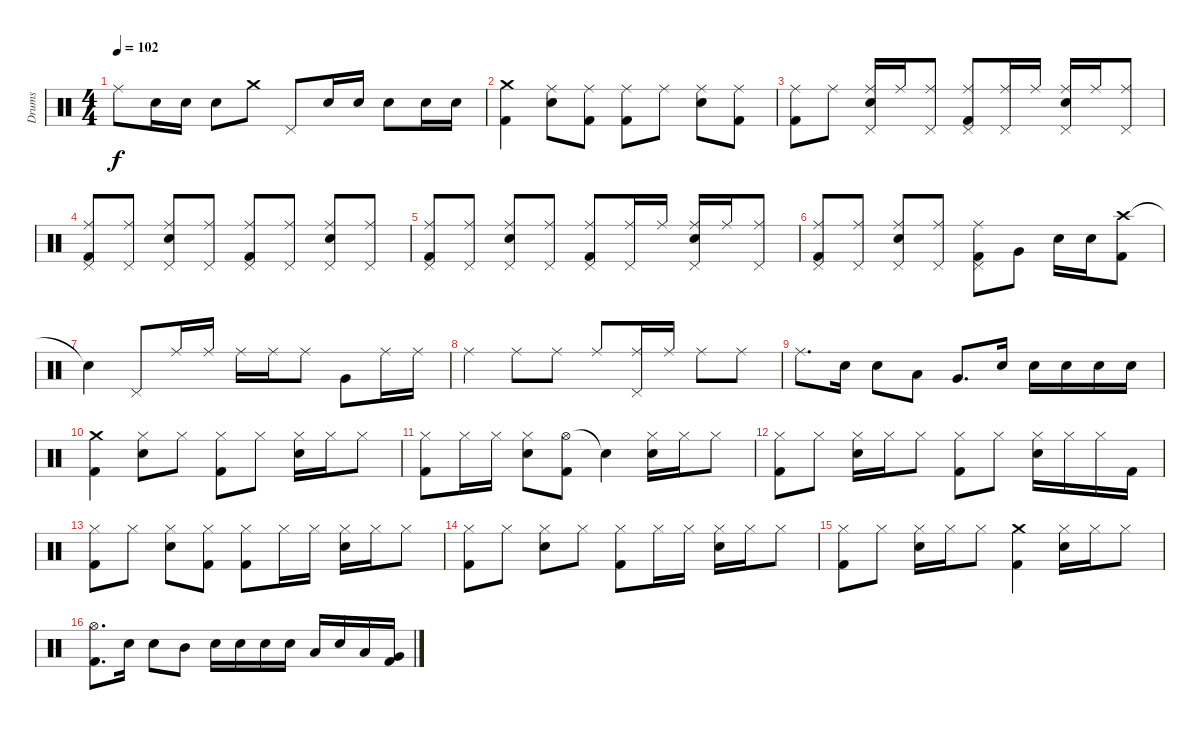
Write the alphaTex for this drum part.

\track ("Drums" "Drums") {instrument percussion}
\staff {score}
\articulation defaults
\ts (4 4)
\tempo 102
\clef neutral
\ks c "Ride (middle)".8{dy f} "Snare (hit) 2".16 "Snare (hit) 2".16 "Snare (hit) 2".8 "Crash medium (hit)".8 "Pedal Hi-Hat (hit)".8 "Snare (hit) 2".16 "Snare (hit) 2".16 "Snare (hit) 2".8 "Snare (hit) 2".16 "Snare (hit) 2".16
|
("Crash medium (hit)" "Kick (hit) 2").4 ("Ride (middle)" "Snare (hit) 2").8 ("Ride (middle)" "Kick (hit) 2").8 ("Ride (middle)" "Kick (hit) 2").8 "Ride (middle)".8 ("Ride (middle)" "Snare (hit) 2").8 ("Ride (middle)" "Kick (hit) 2").8 |
("Ride (middle)" "Kick (hit) 2").8 "Ride (middle)".8 ("Ride (middle)" "Pedal Hi-Hat (hit)" "Snare (hit) 2").16 "Ride (middle)".16 ("Ride (middle)" "Pedal Hi-Hat (hit)").8 ("Ride (middle)" "Pedal Hi-Hat (hit)" "Kick (hit) 2").8 ("Ride (middle)" "Pedal Hi-Hat (hit)").16 "Ride (middle)".16 ("Ride (middle)" "Pedal Hi-Hat (hit)" "Snare (hit) 2").16 "Ride (middle)".16 ("Ride (middle)" "Pedal Hi-Hat (hit)").8 |
("Ride (middle)" "Pedal Hi-Hat (hit)" "Kick (hit) 2").8 ("Ride (middle)" "Pedal Hi-Hat (hit)").8 ("Ride (middle)" "Pedal Hi-Hat (hit)" "Snare (hit) 2").8 ("Ride (middle)" "Pedal Hi-Hat (hit)").8 ("Ride (middle)" "Pedal Hi-Hat (hit)" "Kick (hit) 2").8 ("Ride (middle)" "Pedal Hi-Hat (hit)").8 ("Ride (middle)" "Pedal Hi-Hat (hit)" "Snare (hit) 2").8 ("Ride (middle)" "Pedal Hi-Hat (hit)").8 |
("Ride (middle)" "Pedal Hi-Hat (hit)" "Kick (hit) 2").8 ("Ride (middle)" "Pedal Hi-Hat (hit)").8 ("Ride (middle)" "Pedal Hi-Hat (hit)" "Snare (hit) 2").8 ("Ride (middle)" "Pedal Hi-Hat (hit)").8 ("Ride (middle)" "Pedal Hi-Hat (hit)" "Kick (hit) 2").8 ("Ride (middle)" "Pedal Hi-Hat (hit)").16 "Ride (middle)".16 ("Ride (middle)" "Pedal Hi-Hat (hit)" "Snare (hit) 2").16 "Ride (middle)".16 ("Ride (middle)" "Pedal Hi-Hat (hit)").8 |
("Ride (middle)" "Pedal Hi-Hat (hit)" "Kick (hit) 2").8 ("Ride (middle)" "Pedal Hi-Hat (hit)").8 ("Ride (middle)" "Pedal Hi-Hat (hit)" "Snare (hit) 2").8 ("Ride (middle)" "Pedal Hi-Hat (hit)").8 ("Ride (middle)" "Pedal Hi-Hat (hit)" "Kick (hit) 2").8 "Very Low Tom (hit)".8 "Snare (hit) 2".16 "Snare (hit) 2".16 ("Crash high (hit)" "Kick (hit) 2").8 |
"Snare (hit)"{t}.4 "Pedal Hi-Hat (hit)".8 "Ride (middle)".16 "Ride (middle)".16 "Ride (middle)".16 "Ride (middle)".16 "Ride (middle)".8 "Very Low Tom (hit)".8 "Ride (middle)".16 "Ride (middle)".16 |
"Ride (middle)".4 "Ride (middle)".8 "Ride (middle)".8 "Ride (middle)".8 ("Ride (middle)" "Pedal Hi-Hat (hit)").16 "Ride (middle)".16 "Ride (middle)".8 "Ride (middle)".8 |
"Ride (middle)".8{d} "Snare (hit) 2".16 "Snare (hit) 2".8 "Low Tom (hit)".8 "Very Low Tom (hit)".8{d} "Snare (hit) 2".16 "Snare (hit) 2".16 "Snare (hit) 2".16 "Snare (hit) 2".16 "Snare (hit) 2".16 |
("Crash medium (hit)" "Kick (hit) 2").4 ("Hi-Hat (closed)" "Snare (hit) 2").8 "Hi-Hat (closed)".8 ("Hi-Hat (closed)" "Kick (hit) 2").8 "Hi-Hat (closed)".8 ("Hi-Hat (closed)" "Snare (hit) 2").16 "Hi-Hat (closed)".16 "Hi-Hat (closed)".8 |
("Hi-Hat (closed)" "Kick (hit) 2").8 "Hi-Hat (closed)".16 "Hi-Hat (closed)".16 ("Hi-Hat (closed)" "Snare (hit) 2").8 ("Hi-Hat (open)" "Kick (hit) 2").8 "Snare (hit)"{t}.4 ("Hi-Hat (closed)" "Snare (hit) 2").16 "Hi-Hat (closed)".16 "Hi-Hat (closed)".8 |
("Hi-Hat (closed)" "Kick (hit) 2").8 "Hi-Hat (closed)".8 ("Hi-Hat (closed)" "Snare (hit) 2").16 "Hi-Hat (closed)".16 "Hi-Hat (closed)".8 ("Hi-Hat (closed)" "Kick (hit) 2").8 "Hi-Hat (closed)".8 ("Hi-Hat (closed)" "Snare (hit) 2").16 "Hi-Hat (closed)".16 "Hi-Hat (closed)".16 "Kick (hit) 2".16 |
("Hi-Hat (closed)" "Kick (hit) 2").8 "Hi-Hat (closed)".8 ("Hi-Hat (closed)" "Snare (hit) 2").8 ("Hi-Hat (closed)" "Kick (hit) 2").8 ("Hi-Hat (closed)" "Kick (hit) 2").8 "Hi-Hat (closed)".16 "Hi-Hat (closed)".16 ("Hi-Hat (closed)" "Snare (hit) 2").16 "Hi-Hat (closed)".16 "Hi-Hat (closed)".8 |
("Hi-Hat (closed)" "Kick (hit) 2").8 "Hi-Hat (closed)".8 ("Hi-Hat (closed)" "Snare (hit) 2").8 "Hi-Hat (closed)".8 ("Hi-Hat (closed)" "Kick (hit) 2").8 "Hi-Hat (closed)".16 "Hi-Hat (closed)".16 ("Hi-Hat (closed)" "Snare (hit) 2").16 "Hi-Hat (closed)".16 "Hi-Hat (closed)".8 |
("Hi-Hat (closed)" "Kick (hit) 2").8 "Hi-Hat (closed)".8 ("Hi-Hat (closed)" "Snare (hit) 2").16 "Hi-Hat (closed)".16 "Hi-Hat (closed)".8 ("Crash medium (hit)" "Kick (hit) 2").4 ("Hi-Hat (closed)" "Snare (hit) 2").16 "Hi-Hat (closed)".16 "Hi-Hat (closed)".8 |
("Hi-Hat (open)" "Kick (hit) 2").8{d} "Snare (hit) 2".16 "Snare (hit) 2".8 "Mid Tom (hit)".8 "Snare (hit) 2".16 "Snare (hit) 2".16 "Snare (hit) 2".16 "Snare (hit) 2".16 "Low Tom (hit)".16 "Snare (hit) 2".16 "Low Tom (hit)".16 ("Very Low Tom (hit)" "Kick (hit) 2").16
